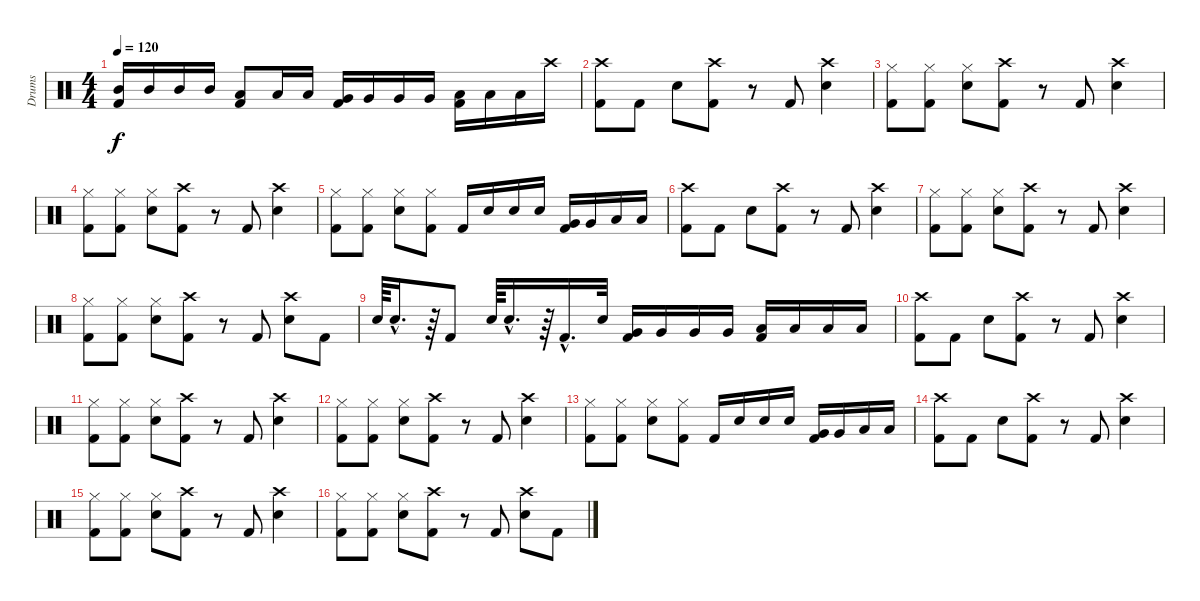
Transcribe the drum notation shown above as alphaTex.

\track ("Drums" "Drums") {instrument percussion}
\staff {score}
\articulation defaults
\ts (4 4)
\tempo 120
\clef neutral
\ks c
("Kick (hit) 2" "Mid Tom (hit)").16{dy f} "Mid Tom (hit)".16 "Mid Tom (hit)".16 "Mid Tom (hit)".16 ("Kick (hit) 2" "Low Tom (hit)").8 "Low Tom (hit)".16 "Low Tom (hit)".16 ("Kick (hit) 2" "Very Low Tom (hit)").16 "Very Low Tom (hit)".16 "Very Low Tom (hit)".16 "Very Low Tom (hit)".16 ("Kick (hit) 2" "Low Floor Tom (hit)").16 "Low Floor Tom (hit)".16 "Low Floor Tom (hit)".16 "Crash high (hit)".16 |
("Crash high (hit)" "Kick (hit) 2").8 "Kick (hit) 2".8 "Electric Snare (hit)".8 ("Crash high (hit)" "Kick (hit) 2").8 r.8 "Kick (hit) 2".8 ("Crash high (hit)" "Electric Snare (hit)").4 |
("Hi-Hat (closed)" "Kick (hit) 2").8 ("Hi-Hat (closed)" "Kick (hit) 2").8 ("Hi-Hat (closed)" "Electric Snare (hit)").8 ("Crash high (hit)" "Kick (hit) 2").8 r.8 "Kick (hit) 2".8 ("Crash high (hit)" "Electric Snare (hit)").4 |
("Hi-Hat (closed)" "Kick (hit) 2").8 ("Hi-Hat (closed)" "Kick (hit) 2").8 ("Hi-Hat (closed)" "Electric Snare (hit)").8 ("Crash high (hit)" "Kick (hit) 2").8 r.8 "Kick (hit) 2".8 ("Crash high (hit)" "Electric Snare (hit)").4 |
("Hi-Hat (closed)" "Kick (hit) 2").8 ("Hi-Hat (closed)" "Kick (hit) 2").8 ("Hi-Hat (closed)" "Electric Snare (hit)").8 ("Hi-Hat (closed)" "Kick (hit) 2").8 "Kick (hit) 2".16 "Electric Snare (hit)".16 "Electric Snare (hit)".16 "Electric Snare (hit)".16 ("Kick (hit) 2" "Very Low Tom (hit)").16 "Very Low Tom (hit)".16 "Low Floor Tom (hit)".16 "Low Floor Tom (hit)".16 |
("Crash high (hit)" "Kick (hit) 2").8{volume 12} "Kick (hit) 2".8 "Electric Snare (hit)".8 ("Crash high (hit)" "Kick (hit) 2").8 r.8 "Kick (hit) 2".8 ("Crash high (hit)" "Electric Snare (hit)").4 |
("Hi-Hat (closed)" "Kick (hit) 2").8 ("Hi-Hat (closed)" "Kick (hit) 2").8 ("Hi-Hat (closed)" "Electric Snare (hit)").8 ("Crash high (hit)" "Kick (hit) 2").8 r.8 "Kick (hit) 2".8 ("Crash high (hit)" "Electric Snare (hit)").4 |
("Hi-Hat (closed)" "Kick (hit) 2").8{volume 10} ("Hi-Hat (closed)" "Kick (hit) 2").8 ("Hi-Hat (closed)" "Electric Snare (hit)").8 ("Crash high (hit)" "Kick (hit) 2").8 r.8 "Kick (hit) 2".8 ("Crash high (hit)" "Electric Snare (hit)").8 "Kick (hit) 2".8 |
"Electric Snare (hit)".64 "Electric Snare (hit)"{hac}.16{d} r.64 "Kick (hit) 2".8 "Electric Snare (hit)".64 "Electric Snare (hit)"{hac}.16{d} r.64 "Kick (hit) 2"{hac}.16{d} "Electric Snare (hit)".32 ("Kick (hit) 2" "Very Low Tom (hit)").16 "Very Low Tom (hit)".16 "Very Low Tom (hit)".16 "Very Low Tom (hit)".16 ("Kick (hit) 2" "Low Floor Tom (hit)").16 "Low Floor Tom (hit)".16 "Low Floor Tom (hit)".16 "Low Floor Tom (hit)".16 |
("Crash high (hit)" "Kick (hit) 2").8{volume 8} "Kick (hit) 2".8 "Electric Snare (hit)".8 ("Crash high (hit)" "Kick (hit) 2").8 r.8 "Kick (hit) 2".8 ("Crash high (hit)" "Electric Snare (hit)").4 |
("Hi-Hat (closed)" "Kick (hit) 2").8 ("Hi-Hat (closed)" "Kick (hit) 2").8 ("Hi-Hat (closed)" "Electric Snare (hit)").8 ("Crash high (hit)" "Kick (hit) 2").8 r.8 "Kick (hit) 2".8 ("Crash high (hit)" "Electric Snare (hit)").4 |
("Hi-Hat (closed)" "Kick (hit) 2").8{volume 6} ("Hi-Hat (closed)" "Kick (hit) 2").8 ("Hi-Hat (closed)" "Electric Snare (hit)").8 ("Crash high (hit)" "Kick (hit) 2").8 r.8 "Kick (hit) 2".8 ("Crash high (hit)" "Electric Snare (hit)").4 |
("Hi-Hat (closed)" "Kick (hit) 2").8 ("Hi-Hat (closed)" "Kick (hit) 2").8 ("Hi-Hat (closed)" "Electric Snare (hit)").8 ("Hi-Hat (closed)" "Kick (hit) 2").8 "Kick (hit) 2".16 "Electric Snare (hit)".16 "Electric Snare (hit)".16 "Electric Snare (hit)".16 ("Kick (hit) 2" "Very Low Tom (hit)").16 "Very Low Tom (hit)".16 "Low Floor Tom (hit)".16 "Low Floor Tom (hit)".16 |
("Crash high (hit)" "Kick (hit) 2").8{volume 4} "Kick (hit) 2".8 "Electric Snare (hit)".8 ("Crash high (hit)" "Kick (hit) 2").8 r.8 "Kick (hit) 2".8 ("Crash high (hit)" "Electric Snare (hit)").4 |
("Hi-Hat (closed)" "Kick (hit) 2").8 ("Hi-Hat (closed)" "Kick (hit) 2").8 ("Hi-Hat (closed)" "Electric Snare (hit)").8 ("Crash high (hit)" "Kick (hit) 2").8 r.8 "Kick (hit) 2".8 ("Crash high (hit)" "Electric Snare (hit)").4 |
("Hi-Hat (closed)" "Kick (hit) 2").8{volume 0} ("Hi-Hat (closed)" "Kick (hit) 2").8 ("Hi-Hat (closed)" "Electric Snare (hit)").8 ("Crash high (hit)" "Kick (hit) 2").8 r.8 "Kick (hit) 2".8 ("Crash high (hit)" "Electric Snare (hit)").8 "Kick (hit) 2".8
